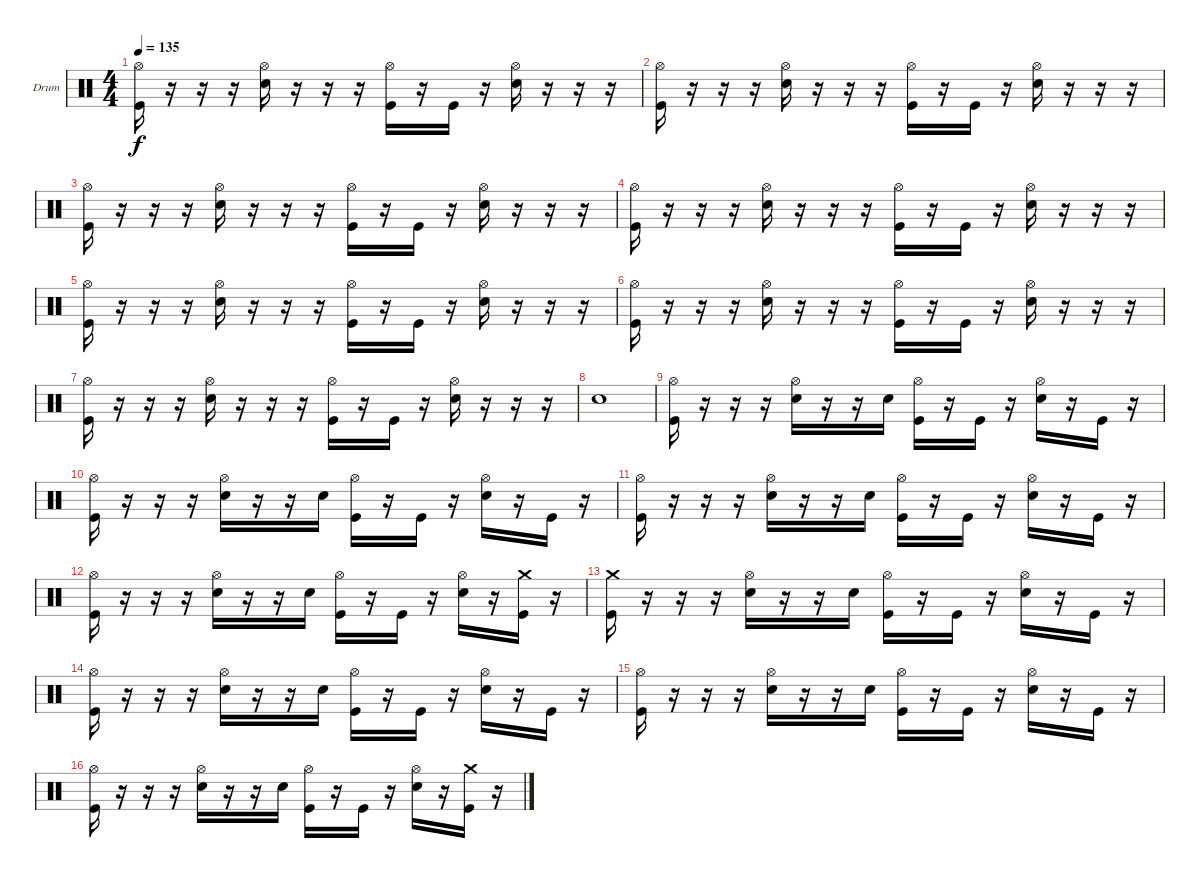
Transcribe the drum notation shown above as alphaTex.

\defaultSystemsLayout 4
\bracketExtendMode groupsimilarinstruments
\firstSystemTrackNameOrientation horizontal
\otherSystemsTrackNameOrientation horizontal
\track ("Drum" "Drum") {instrument percussion}
\staff {score}
\articulation defaults
\ts (4 4)
\tempo 135
\clef neutral
\ks c
("Hi-Hat (open)" "Kick (hit)").16{dy f} r.16 r.16 r.16 ("Hi-Hat (open)" "Snare (hit) 2").16 r.16 r.16 r.16 ("Hi-Hat (open)" "Kick (hit)").16 r.16 "Kick (hit)".16 r.16 ("Hi-Hat (open)" "Snare (hit) 2").16 r.16 r.16 r.16 |
("Hi-Hat (open)" "Kick (hit)").16 r.16 r.16 r.16 ("Hi-Hat (open)" "Snare (hit) 2").16 r.16 r.16 r.16 ("Hi-Hat (open)" "Kick (hit)").16 r.16 "Kick (hit)".16 r.16 ("Hi-Hat (open)" "Snare (hit) 2").16 r.16 r.16 r.16 |
("Hi-Hat (open)" "Kick (hit)").16 r.16 r.16 r.16 ("Hi-Hat (open)" "Snare (hit) 2").16 r.16 r.16 r.16 ("Hi-Hat (open)" "Kick (hit)").16 r.16 "Kick (hit)".16 r.16 ("Hi-Hat (open)" "Snare (hit) 2").16 r.16 r.16 r.16 |
("Hi-Hat (open)" "Kick (hit)").16 r.16 r.16 r.16 ("Hi-Hat (open)" "Snare (hit) 2").16 r.16 r.16 r.16 ("Hi-Hat (open)" "Kick (hit)").16 r.16 "Kick (hit)".16 r.16 ("Hi-Hat (open)" "Snare (hit) 2").16 r.16 r.16 r.16 |
("Hi-Hat (open)" "Kick (hit)").16 r.16 r.16 r.16 ("Hi-Hat (open)" "Snare (hit) 2").16 r.16 r.16 r.16 ("Hi-Hat (open)" "Kick (hit)").16 r.16 "Kick (hit)".16 r.16 ("Hi-Hat (open)" "Snare (hit) 2").16 r.16 r.16 r.16 |
("Hi-Hat (open)" "Kick (hit)").16 r.16 r.16 r.16 ("Hi-Hat (open)" "Snare (hit) 2").16 r.16 r.16 r.16 ("Hi-Hat (open)" "Kick (hit)").16 r.16 "Kick (hit)".16 r.16 ("Hi-Hat (open)" "Snare (hit) 2").16 r.16 r.16 r.16 |
("Hi-Hat (open)" "Kick (hit)").16 r.16 r.16 r.16 ("Hi-Hat (open)" "Snare (hit) 2").16 r.16 r.16 r.16 ("Hi-Hat (open)" "Kick (hit)").16 r.16 "Kick (hit)".16 r.16 ("Hi-Hat (open)" "Snare (hit) 2").16 r.16 r.16 r.16 |
"Snare (hit) 2".1 |
("Hi-Hat (open)" "Kick (hit)").16 r.16 r.16 r.16 ("Hi-Hat (open)" "Snare (hit) 2").16 r.16 r.16 "Snare (hit) 2".16 ("Hi-Hat (open)" "Kick (hit)").16 r.16 "Kick (hit)".16 r.16 ("Hi-Hat (open)" "Snare (hit) 2").16 r.16 "Kick (hit)".16 r.16 |
("Hi-Hat (open)" "Kick (hit)").16 r.16 r.16 r.16 ("Hi-Hat (open)" "Snare (hit) 2").16 r.16 r.16 "Snare (hit) 2".16 ("Hi-Hat (open)" "Kick (hit)").16 r.16 "Kick (hit)".16 r.16 ("Hi-Hat (open)" "Snare (hit) 2").16 r.16 "Kick (hit)".16 r.16 |
("Hi-Hat (open)" "Kick (hit)").16 r.16 r.16 r.16 ("Hi-Hat (open)" "Snare (hit) 2").16 r.16 r.16 "Snare (hit) 2".16 ("Hi-Hat (open)" "Kick (hit)").16 r.16 "Kick (hit)".16 r.16 ("Hi-Hat (open)" "Snare (hit) 2").16 r.16 "Kick (hit)".16 r.16 |
("Hi-Hat (open)" "Kick (hit)").16 r.16 r.16 r.16 ("Hi-Hat (open)" "Snare (hit) 2").16 r.16 r.16 "Snare (hit) 2".16 ("Hi-Hat (open)" "Kick (hit)").16 r.16 "Kick (hit)".16 r.16 ("Hi-Hat (open)" "Snare (hit) 2").16 r.16 ("Crash medium (hit)" "Kick (hit)").16 r.16 |
("Crash medium (hit)" "Kick (hit)").16 r.16 r.16 r.16 ("Hi-Hat (open)" "Snare (hit) 2").16 r.16 r.16 "Snare (hit) 2".16 ("Hi-Hat (open)" "Kick (hit)").16 r.16 "Kick (hit)".16 r.16 ("Hi-Hat (open)" "Snare (hit) 2").16 r.16 "Kick (hit)".16 r.16 |
("Hi-Hat (open)" "Kick (hit)").16 r.16 r.16 r.16 ("Hi-Hat (open)" "Snare (hit) 2").16 r.16 r.16 "Snare (hit) 2".16 ("Hi-Hat (open)" "Kick (hit)").16 r.16 "Kick (hit)".16 r.16 ("Hi-Hat (open)" "Snare (hit) 2").16 r.16 "Kick (hit)".16 r.16 |
("Hi-Hat (open)" "Kick (hit)").16 r.16 r.16 r.16 ("Hi-Hat (open)" "Snare (hit) 2").16 r.16 r.16 "Snare (hit) 2".16 ("Hi-Hat (open)" "Kick (hit)").16 r.16 "Kick (hit)".16 r.16 ("Hi-Hat (open)" "Snare (hit) 2").16 r.16 "Kick (hit)".16 r.16 |
("Hi-Hat (open)" "Kick (hit)").16 r.16 r.16 r.16 ("Hi-Hat (open)" "Snare (hit) 2").16 r.16 r.16 "Snare (hit) 2".16 ("Hi-Hat (open)" "Kick (hit)").16 r.16 "Kick (hit)".16 r.16 ("Hi-Hat (open)" "Snare (hit) 2").16 r.16 ("Crash medium (hit)" "Kick (hit)").16 r.16
